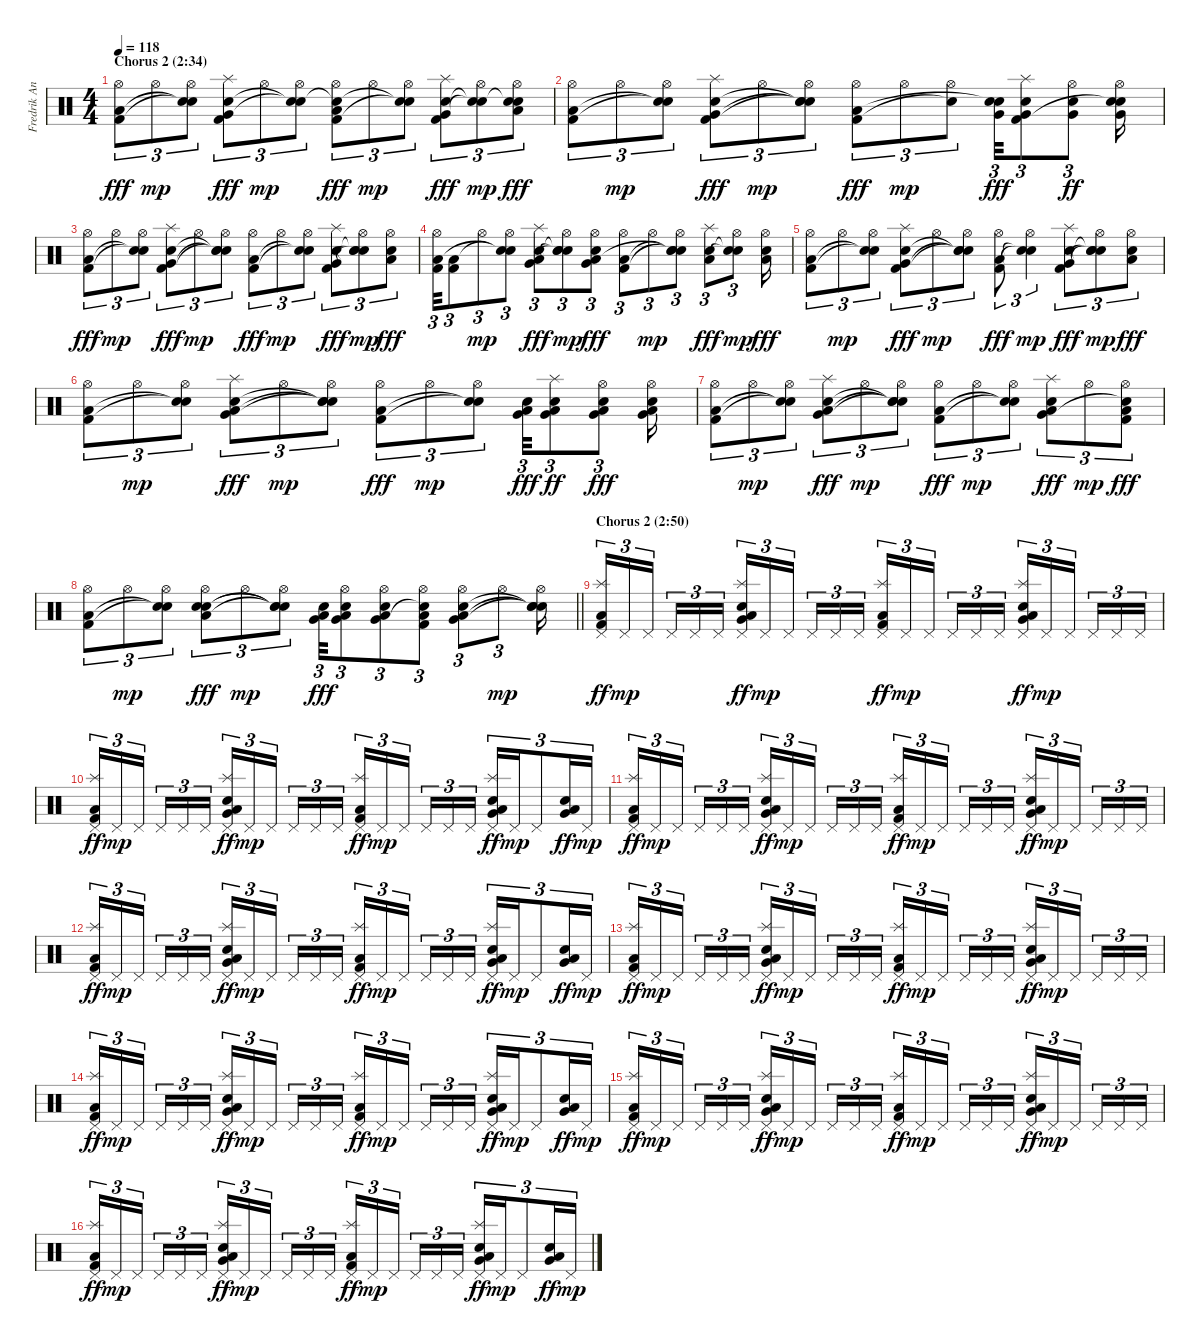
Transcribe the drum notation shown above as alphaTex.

\track ("Fredrik Andersson " "Fredrik An") {instrument percussion}
\staff {score}
\articulation defaults
\ts (4 4)
\section ("" "Chorus 2 (2:34)")
\tempo 118
\clef neutral
\ks c
("Hi-Hat (open)" "Kick (hit) 2" "Low Floor Tom (hit)").8{tu (3 2) dy fff} "Hi-Hat (open)".8{tu (3 2) dy mp} ("Hi-Hat (open)" "Snare (hit)"{t} "Snare (hit)"{t}).8{tu (3 2)} ("Splash (hit)" "Very Low Tom (hit)" "Snare (hit) 2" "Kick (hit) 2").8{tu (3 2) dy fff} "Hi-Hat (open)".8{tu (3 2) dy mp} ("Hi-Hat (open)" "Snare (hit)"{t} "Snare (hit)"{t}).8{tu (3 2)} ("Hi-Hat (open)" "Snare (hit)"{t} "Kick (hit) 2" "Low Floor Tom (hit)").8{tu (3 2) dy fff} "Hi-Hat (open)".8{tu (3 2) dy mp} ("Hi-Hat (open)" "Snare (hit)"{t} "Snare (hit)"{t}).8{tu (3 2)} ("Splash (hit)" "Very Low Tom (hit)" "Snare (hit) 2" "Kick (hit) 2").8{tu (3 2) dy fff} ("Hi-Hat (open)" "Snare (hit)"{t} "Snare (hit)"{t}).8{tu (3 2) dy mp} ("Hi-Hat (open)" "Snare (hit)"{t} "Snare (hit) 2" "Low Floor Tom (hit)").8{tu (3 2) dy fff} |
("Hi-Hat (open)" "Kick (hit) 2" "Low Floor Tom (hit)").8{tu (3 2)} "Hi-Hat (open)".8{tu (3 2) dy mp} ("Hi-Hat (open)" "Snare (hit)"{t} "Snare (hit)"{t}).8{tu (3 2)} ("Splash (hit)" "Very Low Tom (hit)" "Snare (hit) 2" "Kick (hit) 2").8{tu (3 2) dy fff} "Hi-Hat (open)".8{tu (3 2) dy mp} ("Hi-Hat (open)" "Snare (hit)"{t} "Snare (hit)"{t} "Snare (hit)"{t}).8{tu (3 2)} ("Hi-Hat (open)" "Kick (hit) 2" "Low Floor Tom (hit)").8{tu (3 2) dy fff} "Hi-Hat (open)".8{tu (3 2) dy mp} ("Hi-Hat (open)" "Snare (hit)"{t}).8{tu (3 2)} ("Very Low Tom (hit)" "Snare (hit) 2" "Snare (hit)"{t}).32{tu (3 2) dy fff} ("Splash (hit)" "Very Low Tom (hit)" "Snare (hit) 2" "Kick (hit) 2").8{tu (3 2)} ("Hi-Hat (open)" "Very Low Tom (hit)" "Snare (hit) 2").8{tu (3 2) dy ff} ("Hi-Hat (open)" "Very Low Tom (hit)" "Snare (hit) 2" "Snare (hit)"{t}).16 |
("Hi-Hat (open)" "Kick (hit) 2" "Low Floor Tom (hit)").8{tu (3 2) dy fff} "Hi-Hat (open)".8{tu (3 2) dy mp} ("Hi-Hat (open)" "Snare (hit)"{t} "Snare (hit)"{t}).8{tu (3 2)} ("Splash (hit)" "Very Low Tom (hit)" "Snare (hit) 2" "Kick (hit) 2").8{tu (3 2) dy fff} "Hi-Hat (open)".8{tu (3 2) dy mp} ("Hi-Hat (open)" "Snare (hit)"{t} "Snare (hit)"{t} "Snare (hit)"{t}).8{tu (3 2)} ("Hi-Hat (open)" "Kick (hit) 2" "Low Floor Tom (hit)").8{tu (3 2) dy fff} "Hi-Hat (open)".8{tu (3 2) dy mp} ("Hi-Hat (open)" "Snare (hit)"{t} "Snare (hit)"{t}).8{tu (3 2)} ("Splash (hit)" "Very Low Tom (hit)" "Snare (hit) 2" "Kick (hit) 2").8{tu (3 2) dy fff} ("Hi-Hat (open)" "Snare (hit)"{t} "Snare (hit)"{t} "Snare (hit)"{t}).8{tu (3 2) dy mp} ("Hi-Hat (open)" "Snare (hit) 2" "Low Floor Tom (hit)").8{tu (3 2) dy fff} |
("Hi-Hat (open)" "Kick (hit) 2" "Low Floor Tom (hit)").32{tu (3 2)} ("Kick (hit) 2" "Low Floor Tom (hit)").8{tu (3 2)} "Hi-Hat (open)".8{tu (3 2) dy mp} ("Hi-Hat (open)" "Snare (hit)"{t} "Snare (hit)"{t}).8{tu (3 2)} ("Splash (hit)" "Very Low Tom (hit)" "Snare (hit) 2" "Low Floor Tom (hit)").8{tu (3 2) dy fff} ("Hi-Hat (open)" "Snare (hit)"{t} "Snare (hit)"{t} "Snare (hit)"{t}).8{tu (3 2) dy mp} ("Hi-Hat (open)" "Very Low Tom (hit)" "Snare (hit) 2" "Low Floor Tom (hit)").8{tu (3 2) dy fff} ("Hi-Hat (open)" "Kick (hit) 2" "Low Floor Tom (hit)").8{tu (3 2)} "Hi-Hat (open)".8{tu (3 2) dy mp} ("Hi-Hat (open)" "Snare (hit)"{t} "Snare (hit)"{t} "Snare (hit)"{t}).8{tu (3 2)} ("Splash (hit)" "Snare (hit) 2" "Low Floor Tom (hit)").8{tu (3 2) dy fff} ("Hi-Hat (open)" "Snare (hit)"{t} "Snare (hit)"{t}).8{tu (3 2) dy mp} ("Hi-Hat (open)" "Snare (hit) 2" "Low Floor Tom (hit)").16{dy fff} |
("Hi-Hat (open)" "Kick (hit) 2" "Low Floor Tom (hit)").8{tu (3 2)} "Hi-Hat (open)".8{tu (3 2) dy mp} ("Hi-Hat (open)" "Snare (hit)"{t} "Snare (hit)"{t}).8{tu (3 2)} ("Splash (hit)" "Very Low Tom (hit)" "Snare (hit) 2" "Kick (hit) 2").8{tu (3 2) dy fff} "Hi-Hat (open)".8{tu (3 2) dy mp} ("Hi-Hat (open)" "Snare (hit)"{t} "Snare (hit)"{t} "Snare (hit)"{t}).8{tu (3 2)} ("Hi-Hat (open)" "Kick (hit) 2" "Low Floor Tom (hit)").8{tu (3 2) dy fff} ("Hi-Hat (open)" "Snare (hit)"{t} "Snare (hit)"{t}).4{tu (3 2) dy mp} ("Splash (hit)" "Very Low Tom (hit)" "Snare (hit) 2" "Kick (hit) 2").8{tu (3 2) dy fff} ("Hi-Hat (open)" "Snare (hit)"{t} "Snare (hit)"{t} "Snare (hit)"{t}).8{tu (3 2) dy mp} ("Hi-Hat (open)" "Snare (hit) 2" "Low Floor Tom (hit)").8{tu (3 2) dy fff} |
("Hi-Hat (open)" "Kick (hit) 2" "Low Floor Tom (hit)").8{tu (3 2)} "Hi-Hat (open)".8{tu (3 2) dy mp} ("Hi-Hat (open)" "Snare (hit)"{t} "Snare (hit)"{t}).8{tu (3 2)} ("Splash (hit)" "Very Low Tom (hit)" "Snare (hit) 2" "Low Floor Tom (hit)").8{tu (3 2) dy fff} "Hi-Hat (open)".8{tu (3 2) dy mp} ("Hi-Hat (open)" "Snare (hit)"{t} "Snare (hit)"{t} "Snare (hit)"{t}).8{tu (3 2)} ("Hi-Hat (open)" "Kick (hit) 2" "Low Floor Tom (hit)").8{tu (3 2) dy fff} "Hi-Hat (open)".8{tu (3 2) dy mp} ("Hi-Hat (open)" "Snare (hit)"{t} "Snare (hit)"{t}).8{tu (3 2)} ("Very Low Tom (hit)" "Snare (hit) 2" "Low Floor Tom (hit)").32{tu (3 2) dy fff} ("Splash (hit)" "Very Low Tom (hit)" "Snare (hit) 2" "Low Floor Tom (hit)").8{tu (3 2) dy ff} ("Hi-Hat (open)" "Very Low Tom (hit)" "Snare (hit) 2" "Low Floor Tom (hit)").8{tu (3 2) dy fff} ("Hi-Hat (open)" "Very Low Tom (hit)" "Snare (hit) 2" "Low Floor Tom (hit)").16 |
("Hi-Hat (open)" "Kick (hit) 2" "Low Floor Tom (hit)").8{tu (3 2)} "Hi-Hat (open)".8{tu (3 2) dy mp} ("Hi-Hat (open)" "Snare (hit)"{t} "Snare (hit)"{t}).8{tu (3 2)} ("Splash (hit)" "Very Low Tom (hit)" "Snare (hit) 2" "Low Floor Tom (hit)").8{tu (3 2) dy fff} "Hi-Hat (open)".8{tu (3 2) dy mp} ("Hi-Hat (open)" "Snare (hit)"{t} "Snare (hit)"{t} "Snare (hit)"{t}).8{tu (3 2)} ("Hi-Hat (open)" "Kick (hit) 2" "Low Floor Tom (hit)").8{tu (3 2) dy fff} "Hi-Hat (open)".8{tu (3 2) dy mp} ("Hi-Hat (open)" "Snare (hit)"{t} "Snare (hit)"{t}).8{tu (3 2)} ("Splash (hit)" "Very Low Tom (hit)" "Snare (hit) 2" "Low Floor Tom (hit)").8{tu (3 2) dy fff} "Hi-Hat (open)".8{tu (3 2) dy mp} ("Hi-Hat (open)" "Snare (hit)"{t} "Kick (hit) 2" "Low Floor Tom (hit)").8{tu (3 2) dy fff} |
\barLineRight lightlight
("Hi-Hat (open)" "Kick (hit) 2" "Low Floor Tom (hit)").8{tu (3 2)} "Hi-Hat (open)".8{tu (3 2) dy mp} ("Hi-Hat (open)" "Snare (hit)"{t} "Snare (hit)"{t}).8{tu (3 2)} ("Hi-Hat (open)" "Electric Snare (hit)" "Snare (hit) 2" "Low Floor Tom (hit)").8{tu (3 2) dy fff} "Hi-Hat (open)".8{tu (3 2) dy mp} ("Hi-Hat (open)" "Snare (hit)"{t} "Snare (hit)"{t} "Snare (hit)"{t}).8{tu (3 2)} ("Very Low Tom (hit)" "Snare (hit) 2" "Low Floor Tom (hit)").32{tu (3 2) dy fff} ("Hi-Hat (open)" "Very Low Tom (hit)" "Snare (hit) 2" "Low Floor Tom (hit)").8{tu (3 2)} ("Hi-Hat (open)" "Very Low Tom (hit)" "Snare (hit) 2" "Low Floor Tom (hit)").8{tu (3 2)} ("Hi-Hat (open)" "Snare (hit)"{t} "Kick (hit) 2" "Low Floor Tom (hit)").8{tu (3 2)} ("Hi-Hat (open)" "Very Low Tom (hit)" "Snare (hit) 2" "Low Floor Tom (hit)").8{tu (3 2)} "Hi-Hat (open)".8{tu (3 2) dy mp} ("Hi-Hat (open)" "Snare (hit)"{t} "Snare (hit)"{t} "Snare (hit)"{t}).16 |
\section ("" "Chorus 2 (2:50)")
("Splash (hit)" "Pedal Hi-Hat (hit)" "Kick (hit) 2" "Low Floor Tom (hit)").16{tu (3 2) dy ff} "Pedal Hi-Hat (hit)".16{tu (3 2) dy mp} "Pedal Hi-Hat (hit)".16{tu (3 2) beam splitsecondary} "Pedal Hi-Hat (hit)".16{tu (3 2)} "Pedal Hi-Hat (hit)".16{tu (3 2)} "Pedal Hi-Hat (hit)".16{tu (3 2)} ("Splash (hit)" "Pedal Hi-Hat (hit)" "Very Low Tom (hit)" "Snare (hit) 2" "Low Floor Tom (hit)").16{tu (3 2) dy ff} "Pedal Hi-Hat (hit)".16{tu (3 2) dy mp} "Pedal Hi-Hat (hit)".16{tu (3 2) beam splitsecondary} "Pedal Hi-Hat (hit)".16{tu (3 2)} "Pedal Hi-Hat (hit)".16{tu (3 2)} "Pedal Hi-Hat (hit)".16{tu (3 2)} ("Splash (hit)" "Pedal Hi-Hat (hit)" "Kick (hit) 2" "Low Floor Tom (hit)").16{tu (3 2) dy ff} "Pedal Hi-Hat (hit)".16{tu (3 2) dy mp} "Pedal Hi-Hat (hit)".16{tu (3 2) beam splitsecondary} "Pedal Hi-Hat (hit)".16{tu (3 2)} "Pedal Hi-Hat (hit)".16{tu (3 2)} "Pedal Hi-Hat (hit)".16{tu (3 2)} ("Splash (hit)" "Pedal Hi-Hat (hit)" "Very Low Tom (hit)" "Snare (hit) 2" "Low Floor Tom (hit)").16{tu (3 2) dy ff} "Pedal Hi-Hat (hit)".16{tu (3 2) dy mp} "Pedal Hi-Hat (hit)".16{tu (3 2) beam splitsecondary} "Pedal Hi-Hat (hit)".16{tu (3 2)} "Pedal Hi-Hat (hit)".16{tu (3 2)} "Pedal Hi-Hat (hit)".16{tu (3 2)} |
("Splash (hit)" "Pedal Hi-Hat (hit)" "Kick (hit) 2" "Low Floor Tom (hit)").16{tu (3 2) dy ff} "Pedal Hi-Hat (hit)".16{tu (3 2) dy mp} "Pedal Hi-Hat (hit)".16{tu (3 2) beam splitsecondary} "Pedal Hi-Hat (hit)".16{tu (3 2)} "Pedal Hi-Hat (hit)".16{tu (3 2)} "Pedal Hi-Hat (hit)".16{tu (3 2)} ("Splash (hit)" "Pedal Hi-Hat (hit)" "Very Low Tom (hit)" "Snare (hit) 2" "Low Floor Tom (hit)").16{tu (3 2) dy ff} "Pedal Hi-Hat (hit)".16{tu (3 2) dy mp} "Pedal Hi-Hat (hit)".16{tu (3 2) beam splitsecondary} "Pedal Hi-Hat (hit)".16{tu (3 2)} "Pedal Hi-Hat (hit)".16{tu (3 2)} "Pedal Hi-Hat (hit)".16{tu (3 2)} ("Splash (hit)" "Pedal Hi-Hat (hit)" "Kick (hit) 2" "Low Floor Tom (hit)").16{tu (3 2) dy ff} "Pedal Hi-Hat (hit)".16{tu (3 2) dy mp} "Pedal Hi-Hat (hit)".16{tu (3 2) beam splitsecondary} "Pedal Hi-Hat (hit)".16{tu (3 2)} "Pedal Hi-Hat (hit)".16{tu (3 2)} "Pedal Hi-Hat (hit)".16{tu (3 2)} ("Splash (hit)" "Pedal Hi-Hat (hit)" "Very Low Tom (hit)" "Snare (hit) 2" "Low Floor Tom (hit)").16{tu (3 2) dy ff} "Pedal Hi-Hat (hit)".16{tu (3 2) dy mp} "Pedal Hi-Hat (hit)".8{tu (3 2)} ("Very Low Tom (hit)" "Snare (hit) 2" "Low Floor Tom (hit)").16{tu (3 2) dy ff} "Pedal Hi-Hat (hit)".16{tu (3 2) dy mp} |
("Splash (hit)" "Pedal Hi-Hat (hit)" "Kick (hit) 2" "Low Floor Tom (hit)").16{tu (3 2) dy ff} "Pedal Hi-Hat (hit)".16{tu (3 2) dy mp} "Pedal Hi-Hat (hit)".16{tu (3 2) beam splitsecondary} "Pedal Hi-Hat (hit)".16{tu (3 2)} "Pedal Hi-Hat (hit)".16{tu (3 2)} "Pedal Hi-Hat (hit)".16{tu (3 2)} ("Splash (hit)" "Pedal Hi-Hat (hit)" "Very Low Tom (hit)" "Snare (hit) 2" "Low Floor Tom (hit)").16{tu (3 2) dy ff} "Pedal Hi-Hat (hit)".16{tu (3 2) dy mp} "Pedal Hi-Hat (hit)".16{tu (3 2) beam splitsecondary} "Pedal Hi-Hat (hit)".16{tu (3 2)} "Pedal Hi-Hat (hit)".16{tu (3 2)} "Pedal Hi-Hat (hit)".16{tu (3 2)} ("Splash (hit)" "Pedal Hi-Hat (hit)" "Kick (hit) 2" "Low Floor Tom (hit)").16{tu (3 2) dy ff} "Pedal Hi-Hat (hit)".16{tu (3 2) dy mp} "Pedal Hi-Hat (hit)".16{tu (3 2) beam splitsecondary} "Pedal Hi-Hat (hit)".16{tu (3 2)} "Pedal Hi-Hat (hit)".16{tu (3 2)} "Pedal Hi-Hat (hit)".16{tu (3 2)} ("Splash (hit)" "Pedal Hi-Hat (hit)" "Very Low Tom (hit)" "Snare (hit) 2" "Low Floor Tom (hit)").16{tu (3 2) dy ff} "Pedal Hi-Hat (hit)".16{tu (3 2) dy mp} "Pedal Hi-Hat (hit)".16{tu (3 2) beam splitsecondary} "Pedal Hi-Hat (hit)".16{tu (3 2)} "Pedal Hi-Hat (hit)".16{tu (3 2)} "Pedal Hi-Hat (hit)".16{tu (3 2)} |
("Splash (hit)" "Pedal Hi-Hat (hit)" "Kick (hit) 2" "Low Floor Tom (hit)").16{tu (3 2) dy ff} "Pedal Hi-Hat (hit)".16{tu (3 2) dy mp} "Pedal Hi-Hat (hit)".16{tu (3 2) beam splitsecondary} "Pedal Hi-Hat (hit)".16{tu (3 2)} "Pedal Hi-Hat (hit)".16{tu (3 2)} "Pedal Hi-Hat (hit)".16{tu (3 2)} ("Splash (hit)" "Pedal Hi-Hat (hit)" "Very Low Tom (hit)" "Snare (hit) 2" "Low Floor Tom (hit)").16{tu (3 2) dy ff} "Pedal Hi-Hat (hit)".16{tu (3 2) dy mp} "Pedal Hi-Hat (hit)".16{tu (3 2) beam splitsecondary} "Pedal Hi-Hat (hit)".16{tu (3 2)} "Pedal Hi-Hat (hit)".16{tu (3 2)} "Pedal Hi-Hat (hit)".16{tu (3 2)} ("Splash (hit)" "Pedal Hi-Hat (hit)" "Kick (hit) 2" "Low Floor Tom (hit)").16{tu (3 2) dy ff} "Pedal Hi-Hat (hit)".16{tu (3 2) dy mp} "Pedal Hi-Hat (hit)".16{tu (3 2) beam splitsecondary} "Pedal Hi-Hat (hit)".16{tu (3 2)} "Pedal Hi-Hat (hit)".16{tu (3 2)} "Pedal Hi-Hat (hit)".16{tu (3 2)} ("Splash (hit)" "Pedal Hi-Hat (hit)" "Very Low Tom (hit)" "Snare (hit) 2" "Low Floor Tom (hit)").16{tu (3 2) dy ff} "Pedal Hi-Hat (hit)".16{tu (3 2) dy mp} "Pedal Hi-Hat (hit)".8{tu (3 2)} ("Very Low Tom (hit)" "Snare (hit) 2" "Low Floor Tom (hit)").16{tu (3 2) dy ff} "Pedal Hi-Hat (hit)".16{tu (3 2) dy mp} |
("Splash (hit)" "Pedal Hi-Hat (hit)" "Kick (hit) 2" "Low Floor Tom (hit)").16{tu (3 2) dy ff} "Pedal Hi-Hat (hit)".16{tu (3 2) dy mp} "Pedal Hi-Hat (hit)".16{tu (3 2) beam splitsecondary} "Pedal Hi-Hat (hit)".16{tu (3 2)} "Pedal Hi-Hat (hit)".16{tu (3 2)} "Pedal Hi-Hat (hit)".16{tu (3 2)} ("Splash (hit)" "Pedal Hi-Hat (hit)" "Very Low Tom (hit)" "Snare (hit) 2" "Low Floor Tom (hit)").16{tu (3 2) dy ff} "Pedal Hi-Hat (hit)".16{tu (3 2) dy mp} "Pedal Hi-Hat (hit)".16{tu (3 2) beam splitsecondary} "Pedal Hi-Hat (hit)".16{tu (3 2)} "Pedal Hi-Hat (hit)".16{tu (3 2)} "Pedal Hi-Hat (hit)".16{tu (3 2)} ("Splash (hit)" "Pedal Hi-Hat (hit)" "Kick (hit) 2" "Low Floor Tom (hit)").16{tu (3 2) dy ff} "Pedal Hi-Hat (hit)".16{tu (3 2) dy mp} "Pedal Hi-Hat (hit)".16{tu (3 2) beam splitsecondary} "Pedal Hi-Hat (hit)".16{tu (3 2)} "Pedal Hi-Hat (hit)".16{tu (3 2)} "Pedal Hi-Hat (hit)".16{tu (3 2)} ("Splash (hit)" "Pedal Hi-Hat (hit)" "Very Low Tom (hit)" "Snare (hit) 2" "Low Floor Tom (hit)").16{tu (3 2) dy ff} "Pedal Hi-Hat (hit)".16{tu (3 2) dy mp} "Pedal Hi-Hat (hit)".16{tu (3 2) beam splitsecondary} "Pedal Hi-Hat (hit)".16{tu (3 2)} "Pedal Hi-Hat (hit)".16{tu (3 2)} "Pedal Hi-Hat (hit)".16{tu (3 2)} |
("Splash (hit)" "Pedal Hi-Hat (hit)" "Kick (hit) 2" "Low Floor Tom (hit)").16{tu (3 2) dy ff} "Pedal Hi-Hat (hit)".16{tu (3 2) dy mp} "Pedal Hi-Hat (hit)".16{tu (3 2) beam splitsecondary} "Pedal Hi-Hat (hit)".16{tu (3 2)} "Pedal Hi-Hat (hit)".16{tu (3 2)} "Pedal Hi-Hat (hit)".16{tu (3 2)} ("Splash (hit)" "Pedal Hi-Hat (hit)" "Very Low Tom (hit)" "Snare (hit) 2" "Low Floor Tom (hit)").16{tu (3 2) dy ff} "Pedal Hi-Hat (hit)".16{tu (3 2) dy mp} "Pedal Hi-Hat (hit)".16{tu (3 2) beam splitsecondary} "Pedal Hi-Hat (hit)".16{tu (3 2)} "Pedal Hi-Hat (hit)".16{tu (3 2)} "Pedal Hi-Hat (hit)".16{tu (3 2)} ("Splash (hit)" "Pedal Hi-Hat (hit)" "Kick (hit) 2" "Low Floor Tom (hit)").16{tu (3 2) dy ff} "Pedal Hi-Hat (hit)".16{tu (3 2) dy mp} "Pedal Hi-Hat (hit)".16{tu (3 2) beam splitsecondary} "Pedal Hi-Hat (hit)".16{tu (3 2)} "Pedal Hi-Hat (hit)".16{tu (3 2)} "Pedal Hi-Hat (hit)".16{tu (3 2)} ("Splash (hit)" "Pedal Hi-Hat (hit)" "Very Low Tom (hit)" "Snare (hit) 2" "Low Floor Tom (hit)").16{tu (3 2) dy ff} "Pedal Hi-Hat (hit)".16{tu (3 2) dy mp} "Pedal Hi-Hat (hit)".8{tu (3 2)} ("Very Low Tom (hit)" "Snare (hit) 2" "Low Floor Tom (hit)").16{tu (3 2) dy ff} "Pedal Hi-Hat (hit)".16{tu (3 2) dy mp} |
("Splash (hit)" "Pedal Hi-Hat (hit)" "Kick (hit) 2" "Low Floor Tom (hit)").16{tu (3 2) dy ff} "Pedal Hi-Hat (hit)".16{tu (3 2) dy mp} "Pedal Hi-Hat (hit)".16{tu (3 2) beam splitsecondary} "Pedal Hi-Hat (hit)".16{tu (3 2)} "Pedal Hi-Hat (hit)".16{tu (3 2)} "Pedal Hi-Hat (hit)".16{tu (3 2)} ("Splash (hit)" "Pedal Hi-Hat (hit)" "Very Low Tom (hit)" "Snare (hit) 2" "Low Floor Tom (hit)").16{tu (3 2) dy ff} "Pedal Hi-Hat (hit)".16{tu (3 2) dy mp} "Pedal Hi-Hat (hit)".16{tu (3 2) beam splitsecondary} "Pedal Hi-Hat (hit)".16{tu (3 2)} "Pedal Hi-Hat (hit)".16{tu (3 2)} "Pedal Hi-Hat (hit)".16{tu (3 2)} ("Splash (hit)" "Pedal Hi-Hat (hit)" "Kick (hit) 2" "Low Floor Tom (hit)").16{tu (3 2) dy ff} "Pedal Hi-Hat (hit)".16{tu (3 2) dy mp} "Pedal Hi-Hat (hit)".16{tu (3 2) beam splitsecondary} "Pedal Hi-Hat (hit)".16{tu (3 2)} "Pedal Hi-Hat (hit)".16{tu (3 2)} "Pedal Hi-Hat (hit)".16{tu (3 2)} ("Splash (hit)" "Pedal Hi-Hat (hit)" "Very Low Tom (hit)" "Snare (hit) 2" "Low Floor Tom (hit)").16{tu (3 2) dy ff} "Pedal Hi-Hat (hit)".16{tu (3 2) dy mp} "Pedal Hi-Hat (hit)".16{tu (3 2) beam splitsecondary} "Pedal Hi-Hat (hit)".16{tu (3 2)} "Pedal Hi-Hat (hit)".16{tu (3 2)} "Pedal Hi-Hat (hit)".16{tu (3 2)} |
("Splash (hit)" "Pedal Hi-Hat (hit)" "Kick (hit) 2" "Low Floor Tom (hit)").16{tu (3 2) dy ff} "Pedal Hi-Hat (hit)".16{tu (3 2) dy mp} "Pedal Hi-Hat (hit)".16{tu (3 2) beam splitsecondary} "Pedal Hi-Hat (hit)".16{tu (3 2)} "Pedal Hi-Hat (hit)".16{tu (3 2)} "Pedal Hi-Hat (hit)".16{tu (3 2)} ("Splash (hit)" "Pedal Hi-Hat (hit)" "Very Low Tom (hit)" "Snare (hit) 2" "Low Floor Tom (hit)").16{tu (3 2) dy ff} "Pedal Hi-Hat (hit)".16{tu (3 2) dy mp} "Pedal Hi-Hat (hit)".16{tu (3 2) beam splitsecondary} "Pedal Hi-Hat (hit)".16{tu (3 2)} "Pedal Hi-Hat (hit)".16{tu (3 2)} "Pedal Hi-Hat (hit)".16{tu (3 2)} ("Splash (hit)" "Pedal Hi-Hat (hit)" "Kick (hit) 2" "Low Floor Tom (hit)").16{tu (3 2) dy ff} "Pedal Hi-Hat (hit)".16{tu (3 2) dy mp} "Pedal Hi-Hat (hit)".16{tu (3 2) beam splitsecondary} "Pedal Hi-Hat (hit)".16{tu (3 2)} "Pedal Hi-Hat (hit)".16{tu (3 2)} "Pedal Hi-Hat (hit)".16{tu (3 2)} ("Splash (hit)" "Pedal Hi-Hat (hit)" "Very Low Tom (hit)" "Snare (hit) 2" "Low Floor Tom (hit)").16{tu (3 2) dy ff} "Pedal Hi-Hat (hit)".16{tu (3 2) dy mp} "Pedal Hi-Hat (hit)".8{tu (3 2)} ("Very Low Tom (hit)" "Snare (hit) 2" "Low Floor Tom (hit)").16{tu (3 2) dy ff} "Pedal Hi-Hat (hit)".16{tu (3 2) dy mp}
